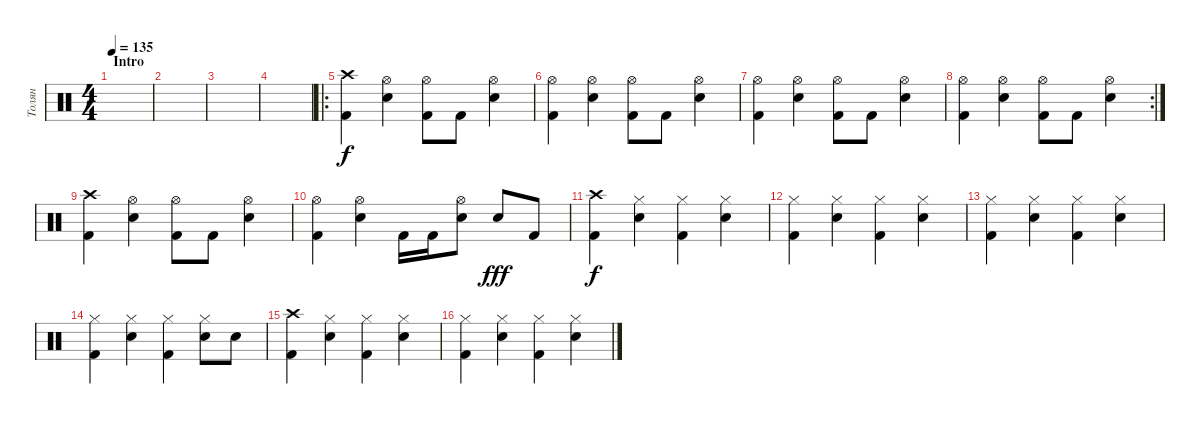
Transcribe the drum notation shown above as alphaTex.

\track ("Толян" "Толян") {instrument percussion}
\staff {score}
\articulation defaults
\ts (4 4)
\section ("" "Intro")
\tempo 135
\clef neutral
\ks c
|
|
|
|
\ro
("Crash high (hit)" "Kick (hit) 2").4 ("Hi-Hat (open)" "Electric Snare (hit)").4 ("Hi-Hat (open)" "Kick (hit) 2").8 "Kick (hit) 2".8 ("Hi-Hat (open)" "Electric Snare (hit)").4 |
("Hi-Hat (open)" "Kick (hit) 2").4 ("Hi-Hat (open)" "Electric Snare (hit)").4 ("Hi-Hat (open)" "Kick (hit) 2").8 "Kick (hit) 2".8 ("Hi-Hat (open)" "Electric Snare (hit)").4 |
("Hi-Hat (open)" "Kick (hit) 2").4 ("Hi-Hat (open)" "Electric Snare (hit)").4 ("Hi-Hat (open)" "Kick (hit) 2").8 "Kick (hit) 2".8 ("Hi-Hat (open)" "Electric Snare (hit)").4 |
\rc 2
("Hi-Hat (open)" "Kick (hit) 2").4 ("Hi-Hat (open)" "Electric Snare (hit)").4 ("Hi-Hat (open)" "Kick (hit) 2").8 "Kick (hit) 2".8 ("Hi-Hat (open)" "Electric Snare (hit)").4 |
("Crash high (hit)" "Kick (hit) 2").4 ("Hi-Hat (open)" "Electric Snare (hit)").4 ("Hi-Hat (open)" "Kick (hit) 2").8 "Kick (hit) 2".8 ("Hi-Hat (open)" "Electric Snare (hit)").4 |
("Hi-Hat (open)" "Kick (hit) 2").4 ("Hi-Hat (open)" "Electric Snare (hit)").4 "Kick (hit) 2".16 "Kick (hit) 2".16 ("Hi-Hat (open)" "Electric Snare (hit)").8 "Electric Snare (hit)".8{dy fff} "Kick (hit) 2".8 |
("Crash high (hit)" "Kick (hit) 2").4{dy f} ("Hi-Hat (closed)" "Electric Snare (hit)").4 ("Hi-Hat (closed)" "Kick (hit) 2").4 ("Hi-Hat (closed)" "Electric Snare (hit)").4 |
("Hi-Hat (closed)" "Kick (hit) 2").4 ("Hi-Hat (closed)" "Electric Snare (hit)").4 ("Hi-Hat (closed)" "Kick (hit) 2").4 ("Hi-Hat (closed)" "Electric Snare (hit)").4 |
("Hi-Hat (closed)" "Kick (hit) 2").4 ("Hi-Hat (closed)" "Electric Snare (hit)").4 ("Hi-Hat (closed)" "Kick (hit) 2").4 ("Hi-Hat (closed)" "Electric Snare (hit)").4 |
("Hi-Hat (closed)" "Kick (hit) 2").4 ("Hi-Hat (closed)" "Electric Snare (hit)").4 ("Hi-Hat (closed)" "Kick (hit) 2").4 ("Hi-Hat (closed)" "Electric Snare (hit)").8 "Electric Snare (hit)".8 |
("Crash high (hit)" "Kick (hit) 2").4 ("Hi-Hat (closed)" "Electric Snare (hit)").4 ("Hi-Hat (closed)" "Kick (hit) 2").4 ("Hi-Hat (closed)" "Electric Snare (hit)").4 |
("Hi-Hat (closed)" "Kick (hit) 2").4 ("Hi-Hat (closed)" "Electric Snare (hit)").4 ("Hi-Hat (closed)" "Kick (hit) 2").4 ("Hi-Hat (closed)" "Electric Snare (hit)").4
